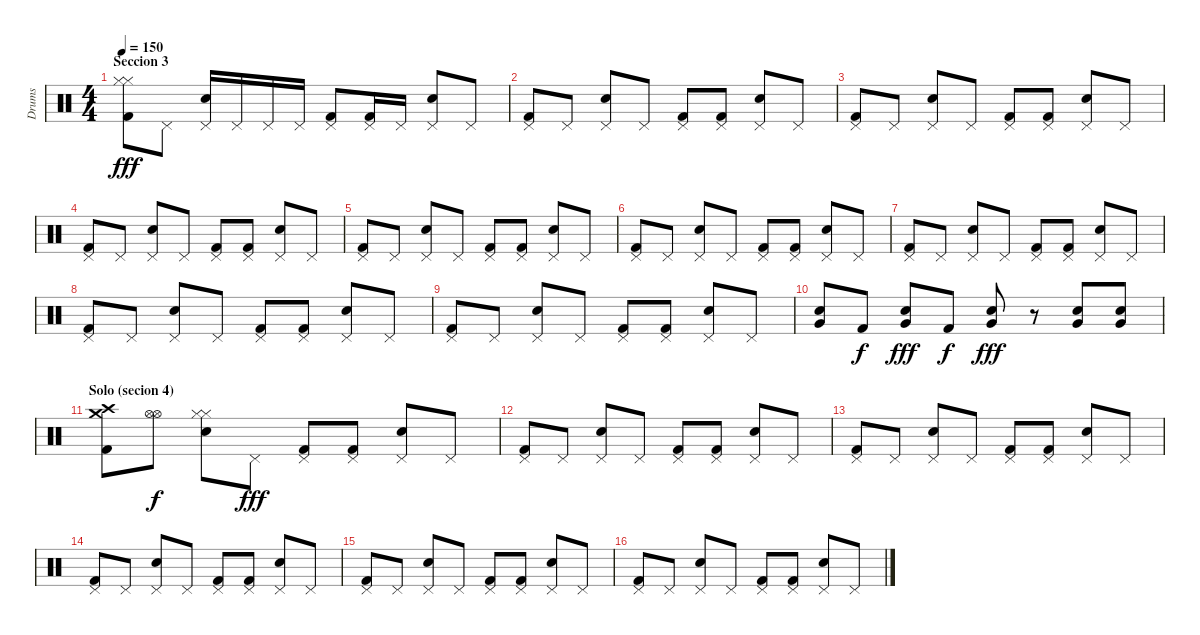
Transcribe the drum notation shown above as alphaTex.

\track ("Drums" "Drums") {instrument percussion}
\staff {score}
\articulation defaults
\ts (4 4)
\section ("" "Seccion 3")
\tempo 150
\clef neutral
\ks c
("Hi-Hat (closed)" "Hi-Hat (closed)" "Kick (hit) 2").8{dy fff} "Pedal Hi-Hat (hit)".8 ("Pedal Hi-Hat (hit)" "Snare (hit) 2").16 "Pedal Hi-Hat (hit)".16 "Pedal Hi-Hat (hit)".16 "Pedal Hi-Hat (hit)".16 ("Pedal Hi-Hat (hit)" "Kick (hit) 2").8 ("Pedal Hi-Hat (hit)" "Kick (hit) 2").16 "Pedal Hi-Hat (hit)".16 ("Pedal Hi-Hat (hit)" "Snare (hit) 2").8 "Pedal Hi-Hat (hit)".8 |
("Pedal Hi-Hat (hit)" "Kick (hit) 2").8 "Pedal Hi-Hat (hit)".8 ("Pedal Hi-Hat (hit)" "Snare (hit) 2").8 "Pedal Hi-Hat (hit)".8 ("Pedal Hi-Hat (hit)" "Kick (hit) 2").8 ("Pedal Hi-Hat (hit)" "Kick (hit) 2").8 ("Pedal Hi-Hat (hit)" "Snare (hit) 2").8 "Pedal Hi-Hat (hit)".8 |
("Pedal Hi-Hat (hit)" "Kick (hit) 2").8 "Pedal Hi-Hat (hit)".8 ("Pedal Hi-Hat (hit)" "Snare (hit) 2").8 "Pedal Hi-Hat (hit)".8 ("Pedal Hi-Hat (hit)" "Kick (hit) 2").8 ("Pedal Hi-Hat (hit)" "Kick (hit) 2").8 ("Pedal Hi-Hat (hit)" "Snare (hit) 2").8 "Pedal Hi-Hat (hit)".8 |
("Pedal Hi-Hat (hit)" "Kick (hit) 2").8 "Pedal Hi-Hat (hit)".8 ("Pedal Hi-Hat (hit)" "Snare (hit) 2").8 "Pedal Hi-Hat (hit)".8 ("Pedal Hi-Hat (hit)" "Kick (hit) 2").8 ("Pedal Hi-Hat (hit)" "Kick (hit) 2").8 ("Pedal Hi-Hat (hit)" "Snare (hit) 2").8 "Pedal Hi-Hat (hit)".8 |
("Pedal Hi-Hat (hit)" "Kick (hit) 2").8 "Pedal Hi-Hat (hit)".8 ("Pedal Hi-Hat (hit)" "Snare (hit) 2").8 "Pedal Hi-Hat (hit)".8 ("Pedal Hi-Hat (hit)" "Kick (hit) 2").8 ("Pedal Hi-Hat (hit)" "Kick (hit) 2").8 ("Pedal Hi-Hat (hit)" "Snare (hit) 2").8 "Pedal Hi-Hat (hit)".8 |
("Pedal Hi-Hat (hit)" "Kick (hit) 2").8 "Pedal Hi-Hat (hit)".8 ("Pedal Hi-Hat (hit)" "Snare (hit) 2").8 "Pedal Hi-Hat (hit)".8 ("Pedal Hi-Hat (hit)" "Kick (hit) 2").8 ("Pedal Hi-Hat (hit)" "Kick (hit) 2").8 ("Pedal Hi-Hat (hit)" "Snare (hit) 2").8 "Pedal Hi-Hat (hit)".8 |
("Pedal Hi-Hat (hit)" "Kick (hit) 2").8 "Pedal Hi-Hat (hit)".8 ("Pedal Hi-Hat (hit)" "Snare (hit) 2").8 "Pedal Hi-Hat (hit)".8 ("Pedal Hi-Hat (hit)" "Kick (hit) 2").8 ("Pedal Hi-Hat (hit)" "Kick (hit) 2").8 ("Pedal Hi-Hat (hit)" "Snare (hit) 2").8 "Pedal Hi-Hat (hit)".8 |
("Pedal Hi-Hat (hit)" "Kick (hit) 2").8 "Pedal Hi-Hat (hit)".8 ("Pedal Hi-Hat (hit)" "Snare (hit) 2").8 "Pedal Hi-Hat (hit)".8 ("Pedal Hi-Hat (hit)" "Kick (hit) 2").8 ("Pedal Hi-Hat (hit)" "Kick (hit) 2").8 ("Pedal Hi-Hat (hit)" "Snare (hit) 2").8 "Pedal Hi-Hat (hit)".8 |
("Pedal Hi-Hat (hit)" "Kick (hit) 2").8 "Pedal Hi-Hat (hit)".8 ("Pedal Hi-Hat (hit)" "Snare (hit) 2").8 "Pedal Hi-Hat (hit)".8 ("Pedal Hi-Hat (hit)" "Kick (hit) 2").8 ("Pedal Hi-Hat (hit)" "Kick (hit) 2").8 ("Pedal Hi-Hat (hit)" "Snare (hit) 2").8 "Pedal Hi-Hat (hit)".8 |
("Snare (hit) 2" "Very Low Tom (hit)").8 "Kick (hit) 2".8{dy f} ("Snare (hit) 2" "Very Low Tom (hit)").8{dy fff} "Kick (hit) 2".8{dy f} ("Snare (hit) 2" "Very Low Tom (hit)").8{dy fff} r.8 ("Snare (hit) 2" "Very Low Tom (hit)").8 ("Snare (hit) 2" "Very Low Tom (hit)").8 |
\section ("" "Solo (secion 4)")
("Crash medium (hit)" "Crash high (hit)" "Kick (hit) 2").8 ("Hi-Hat (open)" "Hi-Hat (open)").8{dy f} ("Hi-Hat (closed)" "Hi-Hat (closed)" "Snare (hit) 2").8 "Pedal Hi-Hat (hit)".8{dy fff} ("Pedal Hi-Hat (hit)" "Kick (hit) 2").8 ("Pedal Hi-Hat (hit)" "Kick (hit) 2").8 ("Pedal Hi-Hat (hit)" "Snare (hit) 2").8 "Pedal Hi-Hat (hit)".8 |
("Pedal Hi-Hat (hit)" "Kick (hit) 2").8 "Pedal Hi-Hat (hit)".8 ("Pedal Hi-Hat (hit)" "Snare (hit) 2").8 "Pedal Hi-Hat (hit)".8 ("Pedal Hi-Hat (hit)" "Kick (hit) 2").8 ("Pedal Hi-Hat (hit)" "Kick (hit) 2").8 ("Pedal Hi-Hat (hit)" "Snare (hit) 2").8 "Pedal Hi-Hat (hit)".8 |
("Pedal Hi-Hat (hit)" "Kick (hit) 2").8 "Pedal Hi-Hat (hit)".8 ("Pedal Hi-Hat (hit)" "Snare (hit) 2").8 "Pedal Hi-Hat (hit)".8 ("Pedal Hi-Hat (hit)" "Kick (hit) 2").8 ("Pedal Hi-Hat (hit)" "Kick (hit) 2").8 ("Pedal Hi-Hat (hit)" "Snare (hit) 2").8 "Pedal Hi-Hat (hit)".8 |
("Pedal Hi-Hat (hit)" "Kick (hit) 2").8 "Pedal Hi-Hat (hit)".8 ("Pedal Hi-Hat (hit)" "Snare (hit) 2").8 "Pedal Hi-Hat (hit)".8 ("Pedal Hi-Hat (hit)" "Kick (hit) 2").8 ("Pedal Hi-Hat (hit)" "Kick (hit) 2").8 ("Pedal Hi-Hat (hit)" "Snare (hit) 2").8 "Pedal Hi-Hat (hit)".8 |
("Pedal Hi-Hat (hit)" "Kick (hit) 2").8 "Pedal Hi-Hat (hit)".8 ("Pedal Hi-Hat (hit)" "Snare (hit) 2").8 "Pedal Hi-Hat (hit)".8 ("Pedal Hi-Hat (hit)" "Kick (hit) 2").8 ("Pedal Hi-Hat (hit)" "Kick (hit) 2").8 ("Pedal Hi-Hat (hit)" "Snare (hit) 2").8 "Pedal Hi-Hat (hit)".8 |
("Pedal Hi-Hat (hit)" "Kick (hit) 2").8 "Pedal Hi-Hat (hit)".8 ("Pedal Hi-Hat (hit)" "Snare (hit) 2").8 "Pedal Hi-Hat (hit)".8 ("Pedal Hi-Hat (hit)" "Kick (hit) 2").8 ("Pedal Hi-Hat (hit)" "Kick (hit) 2").8 ("Pedal Hi-Hat (hit)" "Snare (hit) 2").8 "Pedal Hi-Hat (hit)".8
